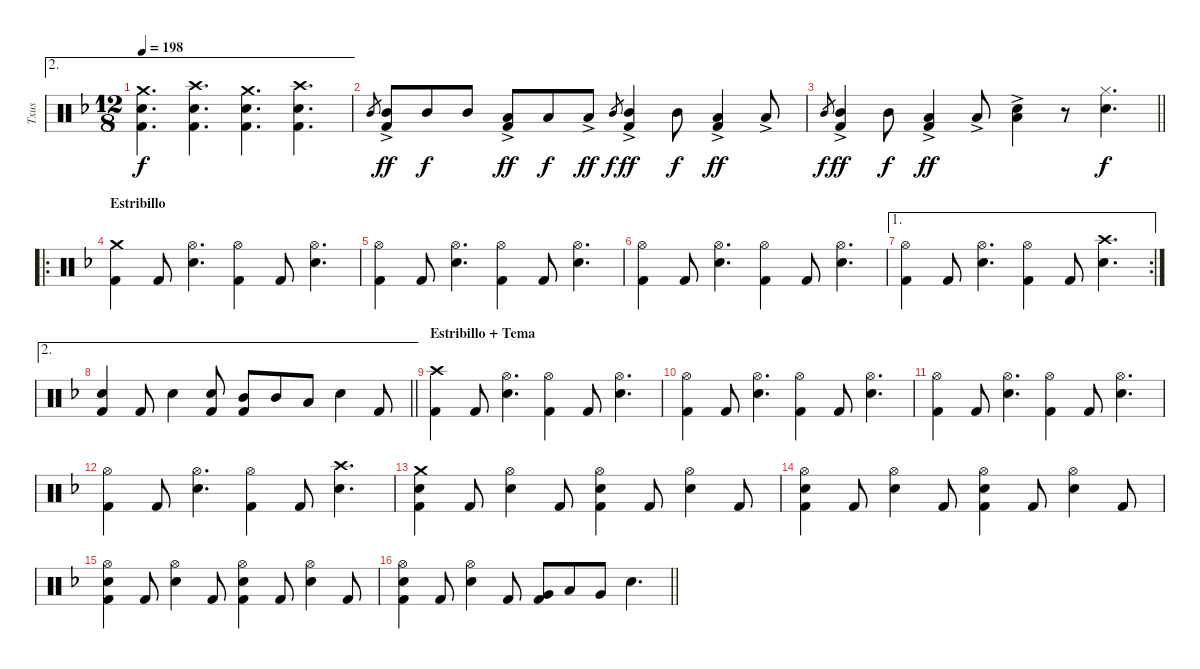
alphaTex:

\track ("Txus" "Txus") {instrument percussion}
\staff {score}
\articulation defaults
\ae 2
\ts (12 8)
\tempo 198
\clef neutral
\ks dminor
("Crash medium (hit)" "Snare (hit) 2" "Kick (hit) 2").4{d dy f} ("Crash high (hit)" "Snare (hit) 2" "Kick (hit) 2").4{d} ("Crash medium (hit)" "Snare (hit) 2" "Kick (hit) 2").4{d} ("Crash high (hit)" "Snare (hit) 2" "Kick (hit) 2").4{d} |
"Mid Tom (hit)".8{gr} ("Mid Tom (hit)"{ac} "Kick (hit) 2").8{dy ff} "Mid Tom (hit)".8{dy f} "Mid Tom (hit)".8 ("Low Tom (hit)"{ac} "Kick (hit) 2").8{dy ff} "Low Tom (hit)".8{dy f} "Low Tom (hit)"{ac}.8{dy ff} "Mid Tom (hit)".8{gr dy f} ("Mid Tom (hit)"{ac} "Kick (hit) 2").4{dy ff} "Mid Tom (hit)".8{dy f} ("Low Tom (hit)"{ac} "Kick (hit) 2").4{dy ff} "Low Tom (hit)"{ac}.8 |
\barLineRight lightlight "Mid Tom (hit)".8{gr dy f}
("Mid Tom (hit)"{ac} "Kick (hit) 2").4{dy ff} "Mid Tom (hit)".8{dy f} ("Low Tom (hit)"{ac} "Kick (hit) 2").4{dy ff} "Low Tom (hit)"{ac}.8 ("Low Tom (hit)" "Snare (hit) 2"{ac}).4 r.8 ("Hi-Hat (closed)" "Snare (hit) 2").4{d dy f} |
\ro
\section ("" "Estribillo")
("Crash medium (hit)" "Kick (hit) 2").4 "Kick (hit) 2".8 ("Hi-Hat (open)" "Snare (hit) 2").4{d} ("Hi-Hat (open)" "Kick (hit) 2").4 "Kick (hit) 2".8 ("Hi-Hat (open)" "Snare (hit) 2").4{d} |
("Hi-Hat (open)" "Kick (hit) 2").4 "Kick (hit) 2".8 ("Hi-Hat (open)" "Snare (hit) 2").4{d} ("Hi-Hat (open)" "Kick (hit) 2").4 "Kick (hit) 2".8 ("Hi-Hat (open)" "Snare (hit) 2").4{d} |
("Hi-Hat (open)" "Kick (hit) 2").4 "Kick (hit) 2".8 ("Hi-Hat (open)" "Snare (hit) 2").4{d} ("Hi-Hat (open)" "Kick (hit) 2").4 "Kick (hit) 2".8 ("Hi-Hat (open)" "Snare (hit) 2").4{d} |
\ae 1
\rc 2
("Hi-Hat (open)" "Kick (hit) 2").4 "Kick (hit) 2".8 ("Hi-Hat (open)" "Snare (hit) 2").4{d} ("Hi-Hat (open)" "Kick (hit) 2").4 "Kick (hit) 2".8 ("Crash high (hit)" "Snare (hit) 2").4{d} |
\ae 2
\barLineRight lightlight
("Snare (hit) 2" "Kick (hit) 2").4 "Kick (hit) 2".8 "Snare (hit) 2".4 ("Snare (hit) 2" "Kick (hit) 2").8 ("Mid Tom (hit)" "Kick (hit) 2").8 "Mid Tom (hit)".8 "Low Tom (hit)".8 "Snare (hit) 2".4 "Kick (hit) 2".8 |
\section ("" "Estribillo + Tema")
("Crash high (hit)" "Kick (hit) 2").4 "Kick (hit) 2".8 ("Hi-Hat (open)" "Snare (hit) 2").4{d} ("Hi-Hat (open)" "Kick (hit) 2").4 "Kick (hit) 2".8 ("Hi-Hat (open)" "Snare (hit) 2").4{d} |
("Hi-Hat (open)" "Kick (hit) 2").4 "Kick (hit) 2".8 ("Hi-Hat (open)" "Snare (hit) 2").4{d} ("Hi-Hat (open)" "Kick (hit) 2").4 "Kick (hit) 2".8 ("Hi-Hat (open)" "Snare (hit) 2").4{d} |
("Hi-Hat (open)" "Kick (hit) 2").4 "Kick (hit) 2".8 ("Hi-Hat (open)" "Snare (hit) 2").4{d} ("Hi-Hat (open)" "Kick (hit) 2").4 "Kick (hit) 2".8 ("Hi-Hat (open)" "Snare (hit) 2").4{d} |
("Hi-Hat (open)" "Kick (hit) 2").4 "Kick (hit) 2".8 ("Hi-Hat (open)" "Snare (hit) 2").4{d} ("Hi-Hat (open)" "Kick (hit) 2").4 "Kick (hit) 2".8 ("Crash high (hit)" "Snare (hit) 2").4{d} |
("Crash medium (hit)" "Snare (hit) 2" "Kick (hit) 2").4 "Kick (hit) 2".8 ("Hi-Hat (open)" "Snare (hit) 2").4 "Kick (hit) 2".8 ("Hi-Hat (open)" "Snare (hit) 2" "Kick (hit) 2").4 "Kick (hit) 2".8 ("Hi-Hat (open)" "Snare (hit) 2").4 "Kick (hit) 2".8 |
("Hi-Hat (open)" "Snare (hit) 2" "Kick (hit) 2").4 "Kick (hit) 2".8 ("Hi-Hat (open)" "Snare (hit) 2").4 "Kick (hit) 2".8 ("Hi-Hat (open)" "Snare (hit) 2" "Kick (hit) 2").4 "Kick (hit) 2".8 ("Hi-Hat (open)" "Snare (hit) 2").4 "Kick (hit) 2".8 |
("Hi-Hat (open)" "Snare (hit) 2" "Kick (hit) 2").4 "Kick (hit) 2".8 ("Hi-Hat (open)" "Snare (hit) 2").4 "Kick (hit) 2".8 ("Hi-Hat (open)" "Snare (hit) 2" "Kick (hit) 2").4 "Kick (hit) 2".8 ("Hi-Hat (open)" "Snare (hit) 2").4 "Kick (hit) 2".8 |
\barLineRight lightlight
("Hi-Hat (open)" "Snare (hit) 2" "Kick (hit) 2").4 "Kick (hit) 2".8 ("Hi-Hat (open)" "Snare (hit) 2").4 "Kick (hit) 2".8 ("Very Low Tom (hit)" "Kick (hit) 2").8 "Low Tom (hit)".8 "Very Low Tom (hit)".8 "Snare (hit) 2".4{d}
